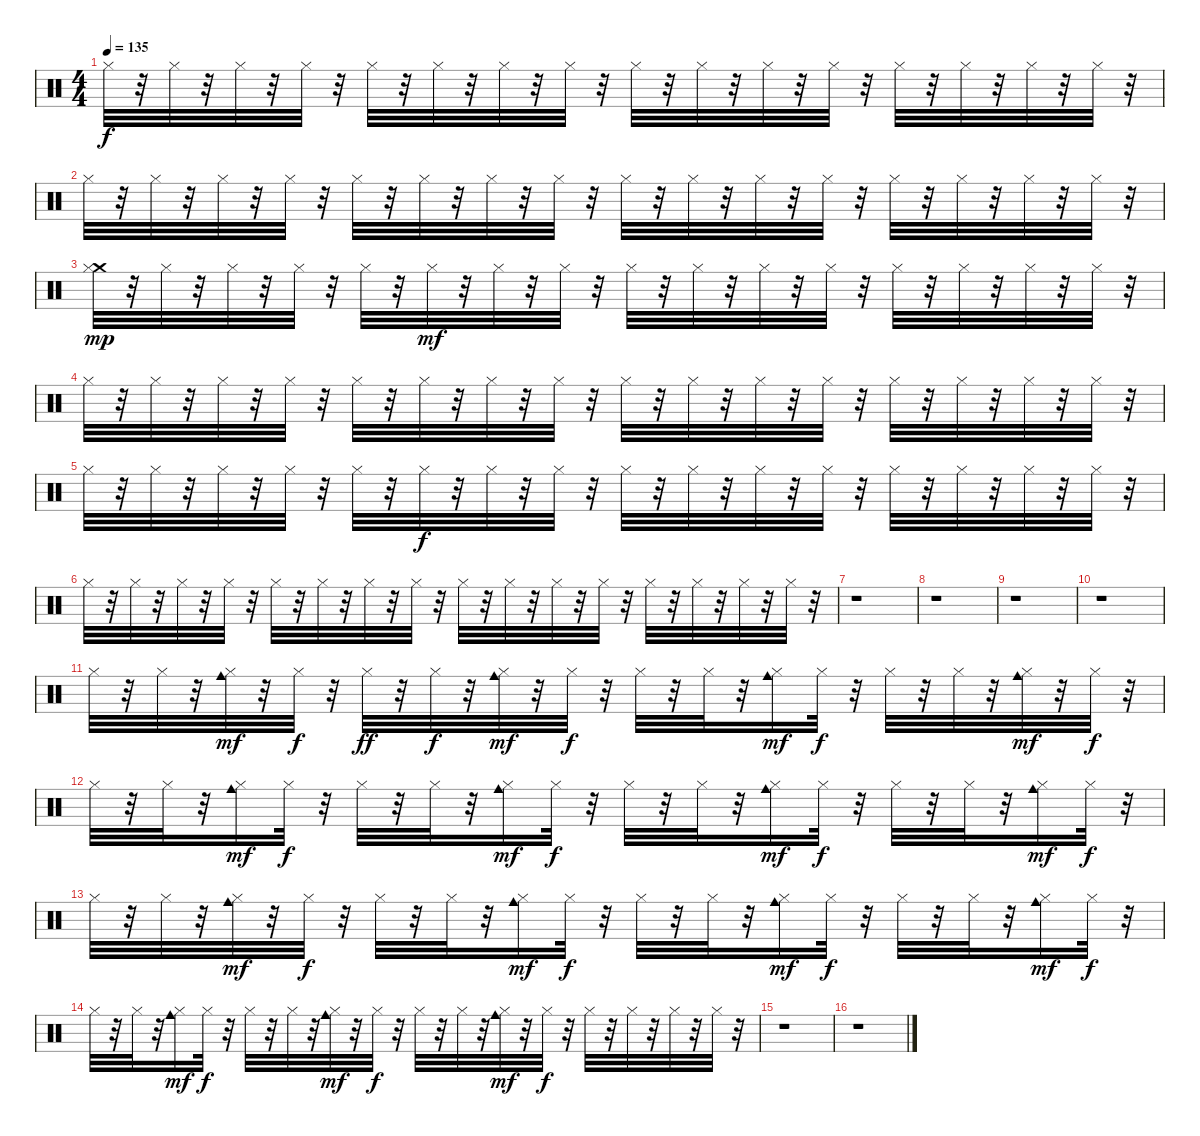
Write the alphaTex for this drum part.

\track "" {instrument percussion}
\staff {score}
\articulation defaults
\ts (4 4)
\tempo 135
\clef neutral
\ks c "Hi-Hat (closed)".32{dy f}
r.32 "Hi-Hat (closed)".32 r.32 "Hi-Hat (closed)".32 r.32 "Hi-Hat (closed)".32 r.32 "Hi-Hat (closed)".32 r.32 "Hi-Hat (closed)".32 r.32 "Hi-Hat (closed)".32 r.32 "Hi-Hat (closed)".32 r.32 "Hi-Hat (closed)".32 r.32 "Hi-Hat (closed)".32 r.32 "Hi-Hat (closed)".32 r.32 "Hi-Hat (closed)".32 r.32 "Hi-Hat (closed)".32 r.32 "Hi-Hat (closed)".32 r.32 "Hi-Hat (closed)".32 r.32 "Hi-Hat (closed)".32 r.32 |
"Hi-Hat (closed)".32 r.32 "Hi-Hat (closed)".32 r.32 "Hi-Hat (closed)".32 r.32 "Hi-Hat (closed)".32 r.32 "Hi-Hat (closed)".32 r.32 "Hi-Hat (closed)".32 r.32 "Hi-Hat (closed)".32 r.32 "Hi-Hat (closed)".32 r.32 "Hi-Hat (closed)".32 r.32 "Hi-Hat (closed)".32 r.32 "Hi-Hat (closed)".32 r.32 "Hi-Hat (closed)".32 r.32 "Hi-Hat (closed)".32 r.32 "Hi-Hat (closed)".32 r.32 "Hi-Hat (closed)".32 r.32 "Hi-Hat (closed)".32 r.32 |
("Crash medium (hit)" "Hi-Hat (closed)").32{dy mp} r.32 "Hi-Hat (closed)".32 r.32 "Hi-Hat (closed)".32 r.32 "Hi-Hat (closed)".32 r.32 "Hi-Hat (closed)".32 r.32 "Hi-Hat (closed)".32{dy mf} r.32 "Hi-Hat (closed)".32 r.32 "Hi-Hat (closed)".32 r.32 "Hi-Hat (closed)".32 r.32 "Hi-Hat (closed)".32 r.32 "Hi-Hat (closed)".32 r.32 "Hi-Hat (closed)".32 r.32 "Hi-Hat (closed)".32 r.32 "Hi-Hat (closed)".32 r.32 "Hi-Hat (closed)".32 r.32 "Hi-Hat (closed)".32 r.32 |
"Hi-Hat (closed)".32 r.32 "Hi-Hat (closed)".32 r.32 "Hi-Hat (closed)".32 r.32 "Hi-Hat (closed)".32 r.32 "Hi-Hat (closed)".32 r.32 "Hi-Hat (closed)".32 r.32 "Hi-Hat (closed)".32 r.32 "Hi-Hat (closed)".32 r.32 "Hi-Hat (closed)".32 r.32 "Hi-Hat (closed)".32 r.32 "Hi-Hat (closed)".32 r.32 "Hi-Hat (closed)".32 r.32 "Hi-Hat (closed)".32 r.32 "Hi-Hat (closed)".32 r.32 "Hi-Hat (closed)".32 r.32 "Hi-Hat (closed)".32 r.32 |
"Hi-Hat (closed)".32 r.32 "Hi-Hat (closed)".32 r.32 "Hi-Hat (closed)".32 r.32 "Hi-Hat (closed)".32 r.32 "Hi-Hat (closed)".32 r.32 "Hi-Hat (closed)".32{dy f} r.32 "Hi-Hat (closed)".32 r.32 "Hi-Hat (closed)".32 r.32 "Hi-Hat (closed)".32 r.32 "Hi-Hat (closed)".32 r.32 "Hi-Hat (closed)".32 r.32 "Hi-Hat (closed)".32 r.32 "Hi-Hat (closed)".32 r.32 "Hi-Hat (closed)".32 r.32 "Hi-Hat (closed)".32 r.32 "Hi-Hat (closed)".32 r.32 |
"Hi-Hat (closed)".32 r.32 "Hi-Hat (closed)".32 r.32 "Hi-Hat (closed)".32 r.32 "Hi-Hat (closed)".32 r.32 "Hi-Hat (closed)".32 r.32 "Hi-Hat (closed)".32 r.32 "Hi-Hat (closed)".32 r.32 "Hi-Hat (closed)".32 r.32 "Hi-Hat (closed)".32 r.32 "Hi-Hat (closed)".32 r.32 "Hi-Hat (closed)".32 r.32 "Hi-Hat (closed)".32 r.32 "Hi-Hat (closed)".32 r.32 "Hi-Hat (closed)".32 r.32 "Hi-Hat (closed)".32 r.32 "Hi-Hat (closed)".32 r.32 |
r.1 |
r.1 |
r.1 |
r.1 |
"Hi-Hat (closed)".32 r.32 "Hi-Hat (closed)".32 r.32 ("Hi-Hat (closed)" "Cowbell medium (hit)").32{dy mf} r.32 "Hi-Hat (closed)".32{dy f} r.32 "Hi-Hat (closed)".32{dy ff} r.32 "Hi-Hat (closed)".32{dy f} r.32 ("Hi-Hat (closed)" "Cowbell medium (hit)").32{dy mf} r.32 "Hi-Hat (closed)".32{dy f} r.32 "Hi-Hat (closed)".32 r.32 "Hi-Hat (closed)".32 r.32 ("Hi-Hat (closed)" "Cowbell medium (hit)").16{dy mf} "Hi-Hat (closed)".32{dy f} r.32 "Hi-Hat (closed)".32 r.32 "Hi-Hat (closed)".32 r.32 ("Hi-Hat (closed)" "Cowbell medium (hit)").32{dy mf} r.32 "Hi-Hat (closed)".32{dy f} r.32 |
"Hi-Hat (closed)".32 r.32 "Hi-Hat (closed)".32 r.32 ("Cowbell medium (hit)" "Hi-Hat (closed)").16{dy mf} "Hi-Hat (closed)".32{dy f} r.32 "Hi-Hat (closed)".32 r.32 "Hi-Hat (closed)".32 r.32 ("Hi-Hat (closed)" "Cowbell medium (hit)").16{dy mf} "Hi-Hat (closed)".32{dy f} r.32 "Hi-Hat (closed)".32 r.32 "Hi-Hat (closed)".32 r.32 ("Hi-Hat (closed)" "Cowbell medium (hit)").16{dy mf} "Hi-Hat (closed)".32{dy f} r.32 "Hi-Hat (closed)".32 r.32 "Hi-Hat (closed)".32 r.32 ("Hi-Hat (closed)" "Cowbell medium (hit)").16{dy mf} "Hi-Hat (closed)".32{dy f} r.32 |
"Hi-Hat (closed)".32 r.32 "Hi-Hat (closed)".32 r.32 ("Hi-Hat (closed)" "Cowbell medium (hit)").32{dy mf} r.32 "Hi-Hat (closed)".32{dy f} r.32 "Hi-Hat (closed)".32 r.32 "Hi-Hat (closed)".32 r.32 ("Hi-Hat (closed)" "Cowbell medium (hit)").16{dy mf} "Hi-Hat (closed)".32{dy f} r.32 "Hi-Hat (closed)".32 r.32 "Hi-Hat (closed)".32 r.32 ("Hi-Hat (closed)" "Cowbell medium (hit)").16{dy mf} "Hi-Hat (closed)".32{dy f} r.32 "Hi-Hat (closed)".32 r.32 "Hi-Hat (closed)".32 r.32 ("Hi-Hat (closed)" "Cowbell medium (hit)").16{dy mf} "Hi-Hat (closed)".32{dy f} r.32 |
"Hi-Hat (closed)".32 r.32 "Hi-Hat (closed)".32 r.32 ("Hi-Hat (closed)" "Cowbell medium (hit)").16{dy mf} "Hi-Hat (closed)".32{dy f} r.32 "Hi-Hat (closed)".32 r.32 "Hi-Hat (closed)".32 r.32 ("Hi-Hat (closed)" "Cowbell medium (hit)").32{dy mf} r.32 "Hi-Hat (closed)".32{dy f} r.32 "Hi-Hat (closed)".32 r.32 "Hi-Hat (closed)".32 r.32 ("Hi-Hat (closed)" "Cowbell medium (hit)").32{dy mf} r.32 "Hi-Hat (closed)".32{dy f} r.32 "Hi-Hat (closed)".32 r.32 "Hi-Hat (closed)".32 r.32 "Hi-Hat (closed)".32 r.32 "Hi-Hat (closed)".32 r.32 |
r.1 |
r.1
